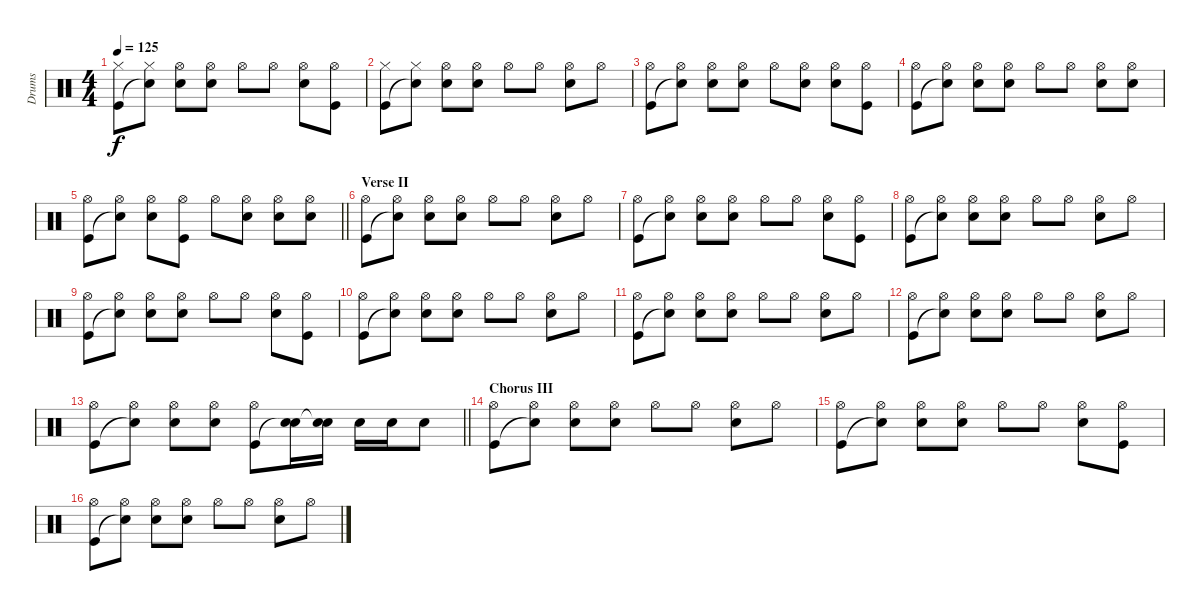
\track ("Drums" "Drums") {instrument percussion}
\staff {score}
\articulation defaults
\ts (4 4)
\tempo 125
\clef neutral
\ks c
("Hi-Hat (closed)" "Kick (hit)").8{dy f} ("Hi-Hat (closed)" "Snare (hit)"{t}).8 ("Hi-Hat (open)" "Snare (hit) 2").8 ("Hi-Hat (open)" "Snare (hit) 2").8 "Hi-Hat (open)".8 "Hi-Hat (open)".8 ("Hi-Hat (open)" "Snare (hit) 2").8 ("Hi-Hat (open)" "Kick (hit)").8 |
("Hi-Hat (closed)" "Kick (hit)").8 ("Hi-Hat (closed)" "Snare (hit)"{t}).8 ("Hi-Hat (open)" "Snare (hit) 2").8 ("Hi-Hat (open)" "Snare (hit) 2").8 "Hi-Hat (open)".8 "Hi-Hat (open)".8 ("Hi-Hat (open)" "Snare (hit) 2").8 "Hi-Hat (open)".8 |
("Hi-Hat (open)" "Kick (hit)").8 ("Hi-Hat (open)" "Snare (hit)"{t}).8 ("Hi-Hat (open)" "Snare (hit) 2").8 ("Hi-Hat (open)" "Snare (hit) 2").8 "Hi-Hat (open)".8 ("Hi-Hat (open)" "Snare (hit) 2").8 ("Hi-Hat (open)" "Snare (hit) 2").8 ("Hi-Hat (open)" "Kick (hit)").8 |
("Hi-Hat (open)" "Kick (hit)").8 ("Hi-Hat (open)" "Snare (hit)"{t}).8 ("Hi-Hat (open)" "Snare (hit) 2").8 ("Hi-Hat (open)" "Snare (hit) 2").8 "Hi-Hat (open)".8 "Hi-Hat (open)".8 ("Hi-Hat (open)" "Snare (hit) 2").8 ("Hi-Hat (open)" "Snare (hit)").8 |
\barLineRight lightlight
("Hi-Hat (open)" "Kick (hit)").8 ("Hi-Hat (open)" "Snare (hit)"{t}).8 ("Hi-Hat (open)" "Snare (hit) 2").8 ("Hi-Hat (open)" "Kick (hit)").8 "Hi-Hat (open)".8 ("Hi-Hat (open)" "Snare (hit) 2").8 ("Hi-Hat (open)" "Snare (hit) 2").8 ("Hi-Hat (open)" "Snare (hit) 2").8 |
\section ("" "Verse II")
("Hi-Hat (open)" "Kick (hit)").8 ("Hi-Hat (open)" "Snare (hit)"{t}).8 ("Hi-Hat (open)" "Snare (hit) 2").8 ("Hi-Hat (open)" "Snare (hit) 2").8 "Hi-Hat (open)".8 "Hi-Hat (open)".8 ("Hi-Hat (open)" "Snare (hit) 2").8 "Hi-Hat (open)".8 |
("Hi-Hat (open)" "Kick (hit)").8 ("Hi-Hat (open)" "Snare (hit)"{t}).8 ("Hi-Hat (open)" "Snare (hit) 2").8 ("Hi-Hat (open)" "Snare (hit) 2").8 "Hi-Hat (open)".8 "Hi-Hat (open)".8 ("Hi-Hat (open)" "Snare (hit) 2").8 ("Hi-Hat (open)" "Kick (hit)").8 |
("Hi-Hat (open)" "Kick (hit)").8 ("Hi-Hat (open)" "Snare (hit)"{t}).8 ("Hi-Hat (open)" "Snare (hit) 2").8 ("Hi-Hat (open)" "Snare (hit) 2").8 "Hi-Hat (open)".8 "Hi-Hat (open)".8 ("Hi-Hat (open)" "Snare (hit) 2").8 "Hi-Hat (open)".8 |
("Hi-Hat (open)" "Kick (hit)").8 ("Hi-Hat (open)" "Snare (hit)"{t}).8 ("Hi-Hat (open)" "Snare (hit) 2").8 ("Hi-Hat (open)" "Snare (hit) 2").8 "Hi-Hat (open)".8 "Hi-Hat (open)".8 ("Hi-Hat (open)" "Snare (hit) 2").8 ("Hi-Hat (open)" "Kick (hit)").8 |
("Hi-Hat (open)" "Kick (hit)").8 ("Hi-Hat (open)" "Snare (hit)"{t}).8 ("Hi-Hat (open)" "Snare (hit) 2").8 ("Hi-Hat (open)" "Snare (hit) 2").8 "Hi-Hat (open)".8 "Hi-Hat (open)".8 ("Hi-Hat (open)" "Snare (hit) 2").8 "Hi-Hat (open)".8 |
("Hi-Hat (open)" "Kick (hit)").8 ("Hi-Hat (open)" "Snare (hit)"{t}).8 ("Hi-Hat (open)" "Snare (hit) 2").8 ("Hi-Hat (open)" "Snare (hit) 2").8 "Hi-Hat (open)".8 "Hi-Hat (open)".8 ("Hi-Hat (open)" "Snare (hit) 2").8 "Hi-Hat (open)".8 |
("Hi-Hat (open)" "Kick (hit)").8 ("Hi-Hat (open)" "Snare (hit)"{t}).8 ("Hi-Hat (open)" "Snare (hit) 2").8 ("Hi-Hat (open)" "Snare (hit) 2").8 "Hi-Hat (open)".8 "Hi-Hat (open)".8 ("Hi-Hat (open)" "Snare (hit) 2").8 "Hi-Hat (open)".8 |
\barLineRight lightlight
("Hi-Hat (open)" "Kick (hit)").8 ("Hi-Hat (open)" "Snare (hit)"{t}).8 ("Hi-Hat (open)" "Snare (hit) 2").8 ("Hi-Hat (open)" "Snare (hit) 2").8 ("Hi-Hat (open)" "Kick (hit)").8 ("Snare (hit) 2" "Snare (hit)"{t}).16 ("Snare (hit) 2" "Snare (hit)"{t}).16 "Snare (hit) 2".16 "Snare (hit) 2".16 "Snare (hit) 2".8 |
\section ("" "Chorus III")
("Hi-Hat (open)" "Kick (hit)").8 ("Hi-Hat (open)" "Snare (hit)"{t}).8 ("Hi-Hat (open)" "Snare (hit) 2").8 ("Hi-Hat (open)" "Snare (hit) 2").8 "Hi-Hat (open)".8 "Hi-Hat (open)".8 ("Hi-Hat (open)" "Snare (hit) 2").8 "Hi-Hat (open)".8 |
("Hi-Hat (open)" "Kick (hit)").8 ("Hi-Hat (open)" "Snare (hit)"{t}).8 ("Hi-Hat (open)" "Snare (hit) 2").8 ("Hi-Hat (open)" "Snare (hit) 2").8 "Hi-Hat (open)".8 "Hi-Hat (open)".8 ("Hi-Hat (open)" "Snare (hit) 2").8 ("Hi-Hat (open)" "Kick (hit)").8 |
("Hi-Hat (open)" "Kick (hit)").8 ("Hi-Hat (open)" "Snare (hit)"{t}).8 ("Hi-Hat (open)" "Snare (hit) 2").8 ("Hi-Hat (open)" "Snare (hit) 2").8 "Hi-Hat (open)".8 "Hi-Hat (open)".8 ("Hi-Hat (open)" "Snare (hit) 2").8 "Hi-Hat (open)".8
